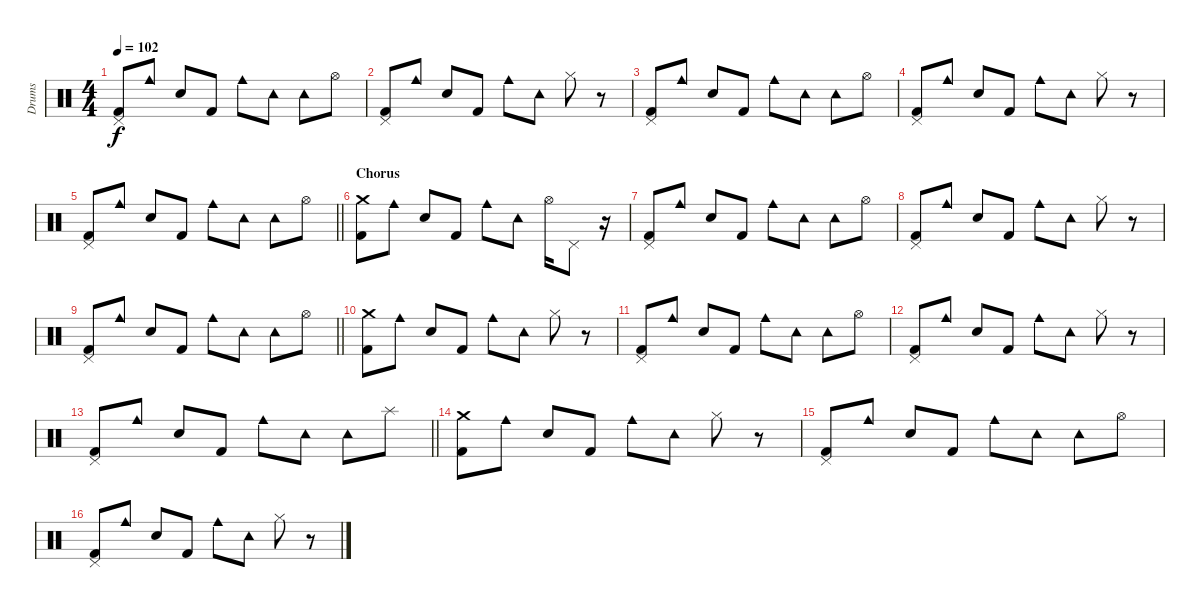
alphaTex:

\track ("Drums" "Drums") {instrument percussion}
\staff {score}
\articulation defaults
\ts (4 4)
\tempo 102
\clef neutral
\ks c
("Pedal Hi-Hat (hit)" "Kick (hit) 2").8{dy f} "Cowbell medium (hit)".8 "Electric Snare (hit)".8 "Kick (hit) 2".8 "Cowbell medium (hit)".8 "Tambourine (hit)".8 "Tambourine (hit)".8 "Hi-Hat (open)".8 |
("Pedal Hi-Hat (hit)" "Kick (hit) 2").8 "Cowbell medium (hit)".8 "Electric Snare (hit)".8 "Kick (hit) 2".8 "Cowbell medium (hit)".8 "Tambourine (hit)".8 "Hi-Hat (closed)".8 r.8 |
("Pedal Hi-Hat (hit)" "Kick (hit) 2").8 "Cowbell medium (hit)".8 "Electric Snare (hit)".8 "Kick (hit) 2".8 "Cowbell medium (hit)".8 "Tambourine (hit)".8 "Tambourine (hit)".8 "Hi-Hat (open)".8 |
("Pedal Hi-Hat (hit)" "Kick (hit) 2").8 "Cowbell medium (hit)".8 "Electric Snare (hit)".8 "Kick (hit) 2".8 "Cowbell medium (hit)".8 "Tambourine (hit)".8 "Hi-Hat (closed)".8 r.8 |
\barLineRight lightlight
("Pedal Hi-Hat (hit)" "Kick (hit) 2").8 "Cowbell medium (hit)".8 "Electric Snare (hit)".8 "Kick (hit) 2".8 "Cowbell medium (hit)".8 "Tambourine (hit)".8 "Tambourine (hit)".8 "Hi-Hat (open)".8 |
\section ("" "Chorus")
("Crash medium (hit)" "Kick (hit) 2").8 "Cowbell medium (hit)".8 "Electric Snare (hit)".8 "Kick (hit) 2".8 "Cowbell medium (hit)".8 "Tambourine (hit)".8 "Hi-Hat (open)".16 "Pedal Hi-Hat (hit)".8 r.16 |
("Pedal Hi-Hat (hit)" "Kick (hit) 2").8 "Cowbell medium (hit)".8 "Electric Snare (hit)".8 "Kick (hit) 2".8 "Cowbell medium (hit)".8 "Tambourine (hit)".8 "Tambourine (hit)".8 "Hi-Hat (open)".8 |
("Pedal Hi-Hat (hit)" "Kick (hit) 2").8 "Cowbell medium (hit)".8 "Electric Snare (hit)".8 "Kick (hit) 2".8 "Cowbell medium (hit)".8 "Tambourine (hit)".8 "Hi-Hat (closed)".8 r.8 |
\barLineRight lightlight
("Pedal Hi-Hat (hit)" "Kick (hit) 2").8 "Cowbell medium (hit)".8 "Electric Snare (hit)".8 "Kick (hit) 2".8 "Cowbell medium (hit)".8 "Tambourine (hit)".8 "Tambourine (hit)".8 "Hi-Hat (open)".8 |
("Crash medium (hit)" "Kick (hit) 2").8 "Cowbell medium (hit)".8 "Electric Snare (hit)".8 "Kick (hit) 2".8 "Cowbell medium (hit)".8 "Tambourine (hit)".8 "Hi-Hat (closed)".8 r.8 |
("Pedal Hi-Hat (hit)" "Kick (hit) 2").8 "Cowbell medium (hit)".8 "Electric Snare (hit)".8 "Kick (hit) 2".8 "Cowbell medium (hit)".8 "Tambourine (hit)".8 "Tambourine (hit)".8 "Hi-Hat (open)".8 |
("Pedal Hi-Hat (hit)" "Kick (hit) 2").8 "Cowbell medium (hit)".8 "Electric Snare (hit)".8 "Kick (hit) 2".8 "Cowbell medium (hit)".8 "Tambourine (hit)".8 "Hi-Hat (closed)".8 r.8 |
\barLineRight lightlight
("Pedal Hi-Hat (hit)" "Kick (hit) 2").8 "Cowbell medium (hit)".8 "Electric Snare (hit)".8 "Kick (hit) 2".8 "Cowbell medium (hit)".8 "Tambourine (hit)".8 "Tambourine (hit)".8 "Splash (hit)".8 |
("Crash medium (hit)" "Kick (hit) 2").8 "Cowbell medium (hit)".8 "Electric Snare (hit)".8 "Kick (hit) 2".8 "Cowbell medium (hit)".8 "Tambourine (hit)".8 "Hi-Hat (closed)".8 r.8 |
("Pedal Hi-Hat (hit)" "Kick (hit) 2").8 "Cowbell medium (hit)".8 "Electric Snare (hit)".8 "Kick (hit) 2".8 "Cowbell medium (hit)".8 "Tambourine (hit)".8 "Tambourine (hit)".8 "Hi-Hat (open)".8 |
("Pedal Hi-Hat (hit)" "Kick (hit) 2").8 "Cowbell medium (hit)".8 "Electric Snare (hit)".8 "Kick (hit) 2".8 "Cowbell medium (hit)".8 "Tambourine (hit)".8 "Hi-Hat (closed)".8 r.8
